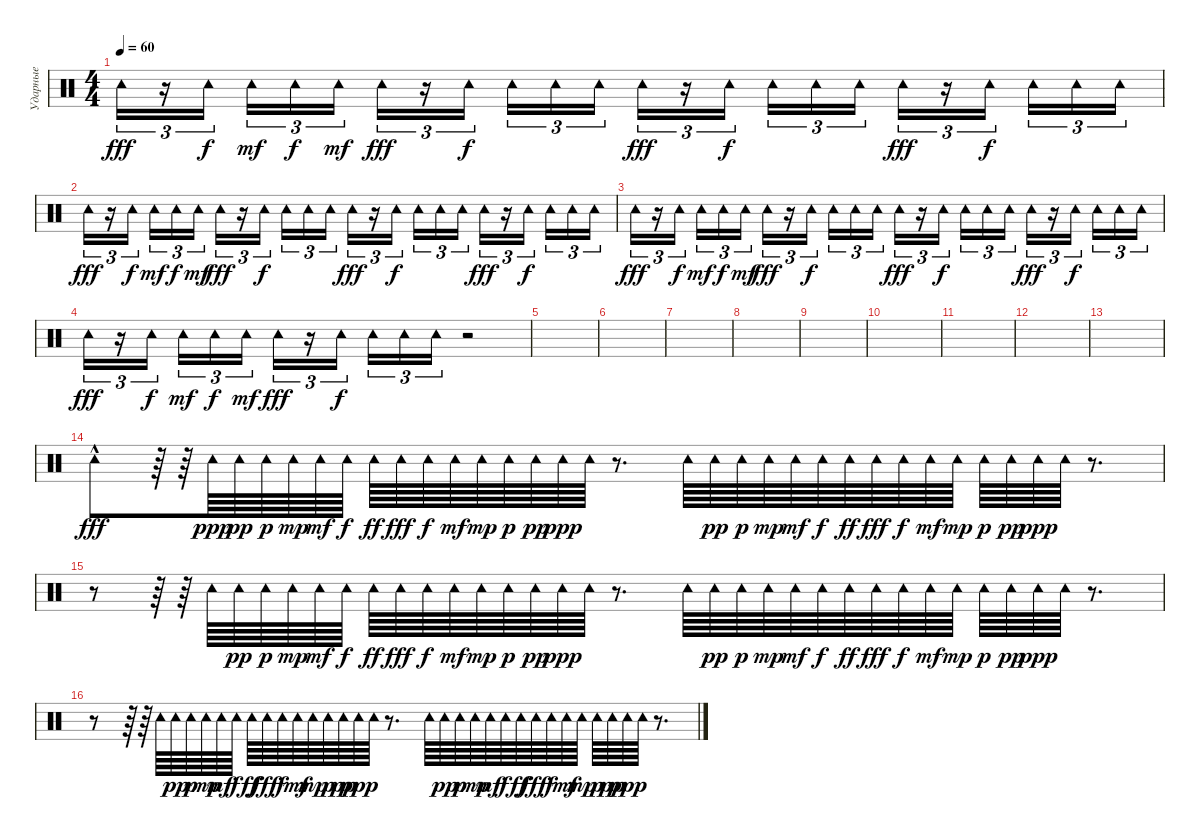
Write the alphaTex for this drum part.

\track ("Ударные" "Ударные") {instrument percussion}
\staff {score}
\articulation defaults
\ts (4 4)
\tempo 60
\clef neutral
\ks c "Tambourine (hit)".16{tu (3 2) dy fff}
r.16{tu (3 2)} "Tambourine (hit)".16{tu (3 2) dy f beam splitsecondary} "Tambourine (hit)".16{tu (3 2) dy mf} "Tambourine (hit)".16{tu (3 2) dy f} "Tambourine (hit)".16{tu (3 2) dy mf} "Tambourine (hit)".16{tu (3 2) dy fff} r.16{tu (3 2)} "Tambourine (hit)".16{tu (3 2) dy f beam splitsecondary} "Tambourine (hit)".16{tu (3 2)} "Tambourine (hit)".16{tu (3 2)} "Tambourine (hit)".16{tu (3 2)} "Tambourine (hit)".16{tu (3 2) dy fff} r.16{tu (3 2)} "Tambourine (hit)".16{tu (3 2) dy f beam splitsecondary} "Tambourine (hit)".16{tu (3 2)} "Tambourine (hit)".16{tu (3 2)} "Tambourine (hit)".16{tu (3 2)} "Tambourine (hit)".16{tu (3 2) dy fff} r.16{tu (3 2)} "Tambourine (hit)".16{tu (3 2) dy f beam splitsecondary} "Tambourine (hit)".16{tu (3 2)} "Tambourine (hit)".16{tu (3 2)} "Tambourine (hit)".16{tu (3 2)} |
"Tambourine (hit)".16{tu (3 2) dy fff} r.16{tu (3 2)} "Tambourine (hit)".16{tu (3 2) dy f beam splitsecondary} "Tambourine (hit)".16{tu (3 2) dy mf} "Tambourine (hit)".16{tu (3 2) dy f} "Tambourine (hit)".16{tu (3 2) dy mf} "Tambourine (hit)".16{tu (3 2) dy fff} r.16{tu (3 2)} "Tambourine (hit)".16{tu (3 2) dy f beam splitsecondary} "Tambourine (hit)".16{tu (3 2)} "Tambourine (hit)".16{tu (3 2)} "Tambourine (hit)".16{tu (3 2)} "Tambourine (hit)".16{tu (3 2) dy fff} r.16{tu (3 2)} "Tambourine (hit)".16{tu (3 2) dy f beam splitsecondary} "Tambourine (hit)".16{tu (3 2)} "Tambourine (hit)".16{tu (3 2)} "Tambourine (hit)".16{tu (3 2)} "Tambourine (hit)".16{tu (3 2) dy fff} r.16{tu (3 2)} "Tambourine (hit)".16{tu (3 2) dy f beam splitsecondary} "Tambourine (hit)".16{tu (3 2)} "Tambourine (hit)".16{tu (3 2)} "Tambourine (hit)".16{tu (3 2)} |
"Tambourine (hit)".16{tu (3 2) dy fff} r.16{tu (3 2)} "Tambourine (hit)".16{tu (3 2) dy f beam splitsecondary} "Tambourine (hit)".16{tu (3 2) dy mf} "Tambourine (hit)".16{tu (3 2) dy f} "Tambourine (hit)".16{tu (3 2) dy mf} "Tambourine (hit)".16{tu (3 2) dy fff} r.16{tu (3 2)} "Tambourine (hit)".16{tu (3 2) dy f beam splitsecondary} "Tambourine (hit)".16{tu (3 2)} "Tambourine (hit)".16{tu (3 2)} "Tambourine (hit)".16{tu (3 2)} "Tambourine (hit)".16{tu (3 2) dy fff} r.16{tu (3 2)} "Tambourine (hit)".16{tu (3 2) dy f beam splitsecondary} "Tambourine (hit)".16{tu (3 2)} "Tambourine (hit)".16{tu (3 2)} "Tambourine (hit)".16{tu (3 2)} "Tambourine (hit)".16{tu (3 2) dy fff} r.16{tu (3 2)} "Tambourine (hit)".16{tu (3 2) dy f beam splitsecondary} "Tambourine (hit)".16{tu (3 2)} "Tambourine (hit)".16{tu (3 2)} "Tambourine (hit)".16{tu (3 2)} |
"Tambourine (hit)".16{tu (3 2) dy fff} r.16{tu (3 2)} "Tambourine (hit)".16{tu (3 2) dy f beam splitsecondary} "Tambourine (hit)".16{tu (3 2) dy mf} "Tambourine (hit)".16{tu (3 2) dy f} "Tambourine (hit)".16{tu (3 2) dy mf} "Tambourine (hit)".16{tu (3 2) dy fff} r.16{tu (3 2)} "Tambourine (hit)".16{tu (3 2) dy f beam splitsecondary} "Tambourine (hit)".16{tu (3 2)} "Tambourine (hit)".16{tu (3 2)} "Tambourine (hit)".16{tu (3 2)} r.2 |
|
|
|
|
|
|
|
|
|
"Tambourine (hit)"{hac}.8{dy fff} r.64 r.64 "Tambourine (hit)".64{dy ppp} "Tambourine (hit)".64{dy pp} "Tambourine (hit)".64{dy p} "Tambourine (hit)".64{dy mp} "Tambourine (hit)".64{dy mf} "Tambourine (hit)".64{dy f} "Tambourine (hit)".64{dy ff} "Tambourine (hit)".64{dy fff} "Tambourine (hit)".64{dy f} "Tambourine (hit)".64{dy mf} "Tambourine (hit)".64{dy mp} "Tambourine (hit)".64{dy p} "Tambourine (hit)".64{dy pp} "Tambourine (hit)".64{dy ppp} "Tambourine (hit)".64 r.8{d} "Tambourine (hit)".64 "Tambourine (hit)".64{dy pp} "Tambourine (hit)".64{dy p} "Tambourine (hit)".64{dy mp} "Tambourine (hit)".64{dy mf} "Tambourine (hit)".64{dy f} "Tambourine (hit)".64{dy ff} "Tambourine (hit)".64{dy fff} "Tambourine (hit)".64{dy f} "Tambourine (hit)".64{dy mf} "Tambourine (hit)".64{dy mp} "Tambourine (hit)".64{dy p} "Tambourine (hit)".64{dy pp} "Tambourine (hit)".64{dy ppp} "Tambourine (hit)".64 r.8{d} |
r.8 r.64 r.64 "Tambourine (hit)".64 "Tambourine (hit)".64{dy pp} "Tambourine (hit)".64{dy p} "Tambourine (hit)".64{dy mp} "Tambourine (hit)".64{dy mf} "Tambourine (hit)".64{dy f} "Tambourine (hit)".64{dy ff} "Tambourine (hit)".64{dy fff} "Tambourine (hit)".64{dy f} "Tambourine (hit)".64{dy mf} "Tambourine (hit)".64{dy mp} "Tambourine (hit)".64{dy p} "Tambourine (hit)".64{dy pp} "Tambourine (hit)".64{dy ppp} "Tambourine (hit)".64 r.8{d} "Tambourine (hit)".64 "Tambourine (hit)".64{dy pp} "Tambourine (hit)".64{dy p} "Tambourine (hit)".64{dy mp} "Tambourine (hit)".64{dy mf} "Tambourine (hit)".64{dy f} "Tambourine (hit)".64{dy ff} "Tambourine (hit)".64{dy fff} "Tambourine (hit)".64{dy f} "Tambourine (hit)".64{dy mf} "Tambourine (hit)".64{dy mp} "Tambourine (hit)".64{dy p} "Tambourine (hit)".64{dy pp} "Tambourine (hit)".64{dy ppp} "Tambourine (hit)".64 r.8{d} |
r.8 r.64 r.64 "Tambourine (hit)".64 "Tambourine (hit)".64{dy pp} "Tambourine (hit)".64{dy p} "Tambourine (hit)".64{dy mp} "Tambourine (hit)".64{dy mf} "Tambourine (hit)".64{dy f} "Tambourine (hit)".64{dy ff} "Tambourine (hit)".64{dy fff} "Tambourine (hit)".64{dy f} "Tambourine (hit)".64{dy mf} "Tambourine (hit)".64{dy mp} "Tambourine (hit)".64{dy p} "Tambourine (hit)".64{dy pp} "Tambourine (hit)".64{dy ppp} "Tambourine (hit)".64 r.8{d} "Tambourine (hit)".64 "Tambourine (hit)".64{dy pp} "Tambourine (hit)".64{dy p} "Tambourine (hit)".64{dy mp} "Tambourine (hit)".64{dy mf} "Tambourine (hit)".64{dy f} "Tambourine (hit)".64{dy ff} "Tambourine (hit)".64{dy fff} "Tambourine (hit)".64{dy f} "Tambourine (hit)".64{dy mf} "Tambourine (hit)".64{dy mp} "Tambourine (hit)".64{dy p} "Tambourine (hit)".64{dy pp} "Tambourine (hit)".64{dy ppp} "Tambourine (hit)".64 r.8{d}
